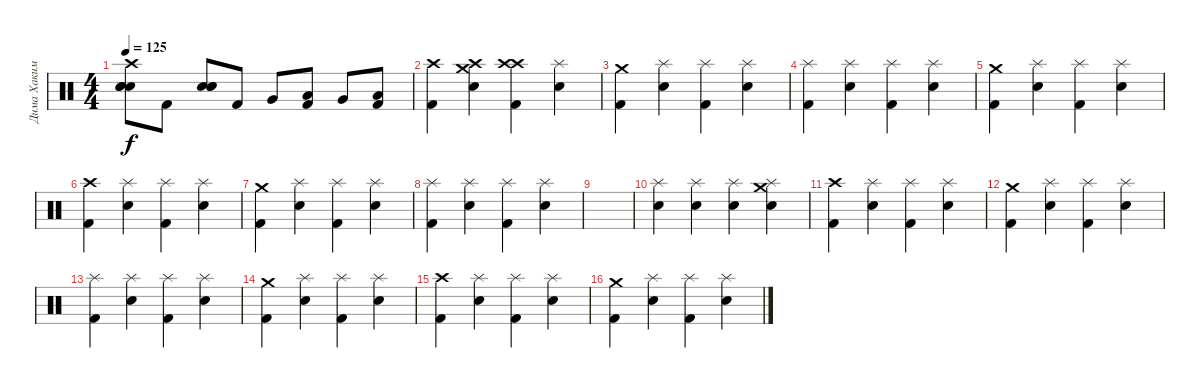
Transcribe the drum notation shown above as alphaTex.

\track ("Дима Хакимов" "Дима Хаким") {instrument percussion}
\staff {score}
\articulation defaults
\ts (4 4)
\tempo 125
\clef neutral
\ks c
("Crash high (hit)" "Electric Snare (hit)" "Snare (hit) 2" "Hand Clap (hit)").8{dy f} "Kick (hit) 2".8 ("Electric Snare (hit)" "Snare (hit) 2" "Hand Clap (hit)").8 "Kick (hit) 2".8 "Very Low Tom (hit)".8 ("Low Floor Tom (hit)" "Kick (hit) 2").8 "Very Low Tom (hit)".8 ("Low Floor Tom (hit)" "Kick (hit) 2").8 |
("Crash high (hit)" "Kick (hit) 2").4 ("Crash high (hit)" "Crash medium (hit)" "Electric Snare (hit)").4 ("Crash high (hit)" "Crash high (hit)" "Kick (hit) 2").4 ("Splash (hit)" "Electric Snare (hit)").4 |
("Crash medium (hit)" "Kick (hit) 2").4 ("Splash (hit)" "Electric Snare (hit)").4 ("Splash (hit)" "Kick (hit) 2").4 ("Splash (hit)" "Electric Snare (hit)").4 |
("Splash (hit)" "Kick (hit) 2").4 ("Splash (hit)" "Electric Snare (hit)").4 ("Splash (hit)" "Kick (hit) 2").4 ("Splash (hit)" "Electric Snare (hit)").4 |
("Crash medium (hit)" "Kick (hit) 2").4 ("Splash (hit)" "Electric Snare (hit)").4 ("Splash (hit)" "Kick (hit) 2").4 ("Splash (hit)" "Electric Snare (hit)").4 |
("Crash high (hit)" "Kick (hit) 2").4 ("Splash (hit)" "Electric Snare (hit)").4 ("Splash (hit)" "Kick (hit) 2").4 ("Splash (hit)" "Electric Snare (hit)").4 |
("Crash medium (hit)" "Kick (hit) 2").4 ("Splash (hit)" "Electric Snare (hit)").4 ("Splash (hit)" "Kick (hit) 2").4 ("Splash (hit)" "Electric Snare (hit)").4 |
("Splash (hit)" "Kick (hit) 2").4 ("Splash (hit)" "Electric Snare (hit)").4 ("Splash (hit)" "Kick (hit) 2").4 ("Splash (hit)" "Electric Snare (hit)").4 |
|
("Splash (hit)" "Electric Snare (hit)").4 ("Splash (hit)" "Electric Snare (hit)").4 ("Splash (hit)" "Electric Snare (hit)").4 ("Crash medium (hit)" "Splash (hit)" "Electric Snare (hit)").4 |
("Crash high (hit)" "Kick (hit) 2").4 ("Splash (hit)" "Electric Snare (hit)").4 ("Splash (hit)" "Kick (hit) 2").4 ("Splash (hit)" "Electric Snare (hit)").4 |
("Crash medium (hit)" "Kick (hit) 2").4 ("Splash (hit)" "Electric Snare (hit)").4 ("Splash (hit)" "Kick (hit) 2").4 ("Splash (hit)" "Electric Snare (hit)").4 |
("Splash (hit)" "Kick (hit) 2").4 ("Splash (hit)" "Electric Snare (hit)").4 ("Splash (hit)" "Kick (hit) 2").4 ("Splash (hit)" "Electric Snare (hit)").4 |
("Crash medium (hit)" "Kick (hit) 2").4 ("Splash (hit)" "Electric Snare (hit)").4 ("Splash (hit)" "Kick (hit) 2").4 ("Splash (hit)" "Electric Snare (hit)").4 |
("Crash high (hit)" "Kick (hit) 2").4 ("Splash (hit)" "Electric Snare (hit)").4 ("Splash (hit)" "Kick (hit) 2").4 ("Splash (hit)" "Electric Snare (hit)").4 |
("Crash medium (hit)" "Kick (hit) 2").4 ("Splash (hit)" "Electric Snare (hit)").4 ("Splash (hit)" "Kick (hit) 2").4 ("Splash (hit)" "Electric Snare (hit)").4
